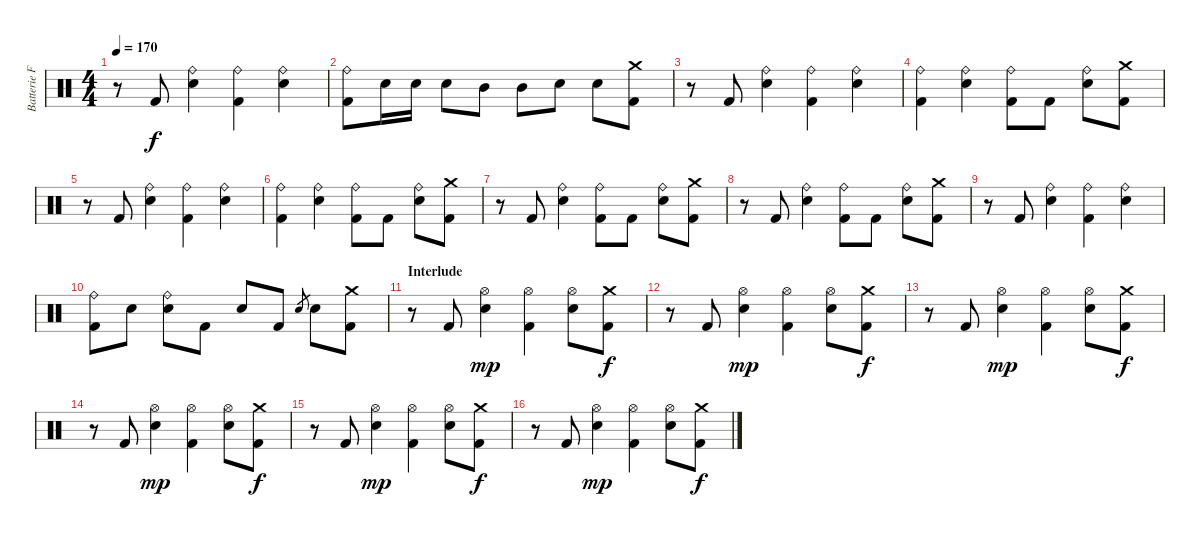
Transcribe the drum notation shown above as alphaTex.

\track ("Batterie Franck" "Batterie F") {instrument percussion}
\staff {score}
\articulation defaults
\ts (4 4)
\tempo 170
\clef neutral
\ks c
r.8{dy f} "Kick (hit) 2".8 ("Ride (bell)" "Snare (hit) 2").4 ("Ride (bell)" "Kick (hit) 2").4 ("Ride (bell)" "Snare (hit) 2").4 |
("Ride (bell)" "Kick (hit) 2").8 "Snare (hit) 2".16 "Snare (hit) 2".16 "Snare (hit) 2".8 "Mid Tom (hit)".8 "Mid Tom (hit)".8 "Snare (hit) 2".8 "Snare (hit) 2".8 ("Crash medium (hit)" "Kick (hit) 2").8 |
r.8 "Kick (hit) 2".8 ("Ride (bell)" "Snare (hit) 2").4 ("Ride (bell)" "Kick (hit) 2").4 ("Ride (bell)" "Snare (hit) 2").4 |
("Ride (bell)" "Kick (hit) 2").4 ("Ride (bell)" "Snare (hit) 2").4 ("Ride (bell)" "Kick (hit) 2").8 "Kick (hit) 2".8 ("Ride (bell)" "Snare (hit) 2").8 ("Crash medium (hit)" "Kick (hit) 2").8 |
r.8 "Kick (hit) 2".8 ("Ride (bell)" "Snare (hit) 2").4 ("Ride (bell)" "Kick (hit) 2").4 ("Ride (bell)" "Snare (hit) 2").4 |
("Ride (bell)" "Kick (hit) 2").4 ("Ride (bell)" "Snare (hit) 2").4 ("Ride (bell)" "Kick (hit) 2").8 "Kick (hit) 2".8 ("Ride (bell)" "Snare (hit) 2").8 ("Crash medium (hit)" "Kick (hit) 2").8 |
r.8 "Kick (hit) 2".8 ("Ride (bell)" "Snare (hit) 2").4 ("Ride (bell)" "Kick (hit) 2").8 "Kick (hit) 2".8 ("Ride (bell)" "Snare (hit) 2").8 ("Crash medium (hit)" "Kick (hit) 2").8 |
r.8 "Kick (hit) 2".8 ("Ride (bell)" "Snare (hit) 2").4 ("Ride (bell)" "Kick (hit) 2").8 "Kick (hit) 2".8 ("Ride (bell)" "Snare (hit) 2").8 ("Crash medium (hit)" "Kick (hit) 2").8 |
r.8 "Kick (hit) 2".8 ("Ride (bell)" "Snare (hit) 2").4 ("Ride (bell)" "Kick (hit) 2").4 ("Ride (bell)" "Snare (hit) 2").4 |
("Ride (bell)" "Kick (hit) 2").8 "Snare (hit) 2".8 ("Ride (bell)" "Snare (hit) 2").8 "Kick (hit) 2".8 "Snare (hit) 2".8 "Kick (hit) 2".8 "Snare (hit) 2".8{gr} "Snare (hit) 2".8 ("Crash medium (hit)" "Kick (hit) 2").8 |
\section ("" "Interlude")
r.8 "Kick (hit) 2".8 ("Hi-Hat (open)" "Snare (hit) 2").4{dy mp} ("Hi-Hat (open)" "Kick (hit) 2").4 ("Hi-Hat (open)" "Snare (hit) 2").8 ("Crash medium (hit)" "Kick (hit) 2").8{dy f} |
r.8 "Kick (hit) 2".8 ("Hi-Hat (open)" "Snare (hit) 2").4{dy mp} ("Hi-Hat (open)" "Kick (hit) 2").4 ("Hi-Hat (open)" "Snare (hit) 2").8 ("Crash medium (hit)" "Kick (hit) 2").8{dy f} |
r.8 "Kick (hit) 2".8 ("Hi-Hat (open)" "Snare (hit) 2").4{dy mp} ("Hi-Hat (open)" "Kick (hit) 2").4 ("Hi-Hat (open)" "Snare (hit) 2").8 ("Crash medium (hit)" "Kick (hit) 2").8{dy f} |
r.8 "Kick (hit) 2".8 ("Hi-Hat (open)" "Snare (hit) 2").4{dy mp} ("Hi-Hat (open)" "Kick (hit) 2").4 ("Hi-Hat (open)" "Snare (hit) 2").8 ("Crash medium (hit)" "Kick (hit) 2").8{dy f} |
r.8 "Kick (hit) 2".8 ("Hi-Hat (open)" "Snare (hit) 2").4{dy mp} ("Hi-Hat (open)" "Kick (hit) 2").4 ("Hi-Hat (open)" "Snare (hit) 2").8 ("Crash medium (hit)" "Kick (hit) 2").8{dy f} |
r.8 "Kick (hit) 2".8 ("Hi-Hat (open)" "Snare (hit) 2").4{dy mp} ("Hi-Hat (open)" "Kick (hit) 2").4 ("Hi-Hat (open)" "Snare (hit) 2").8 ("Crash medium (hit)" "Kick (hit) 2").8{dy f}
